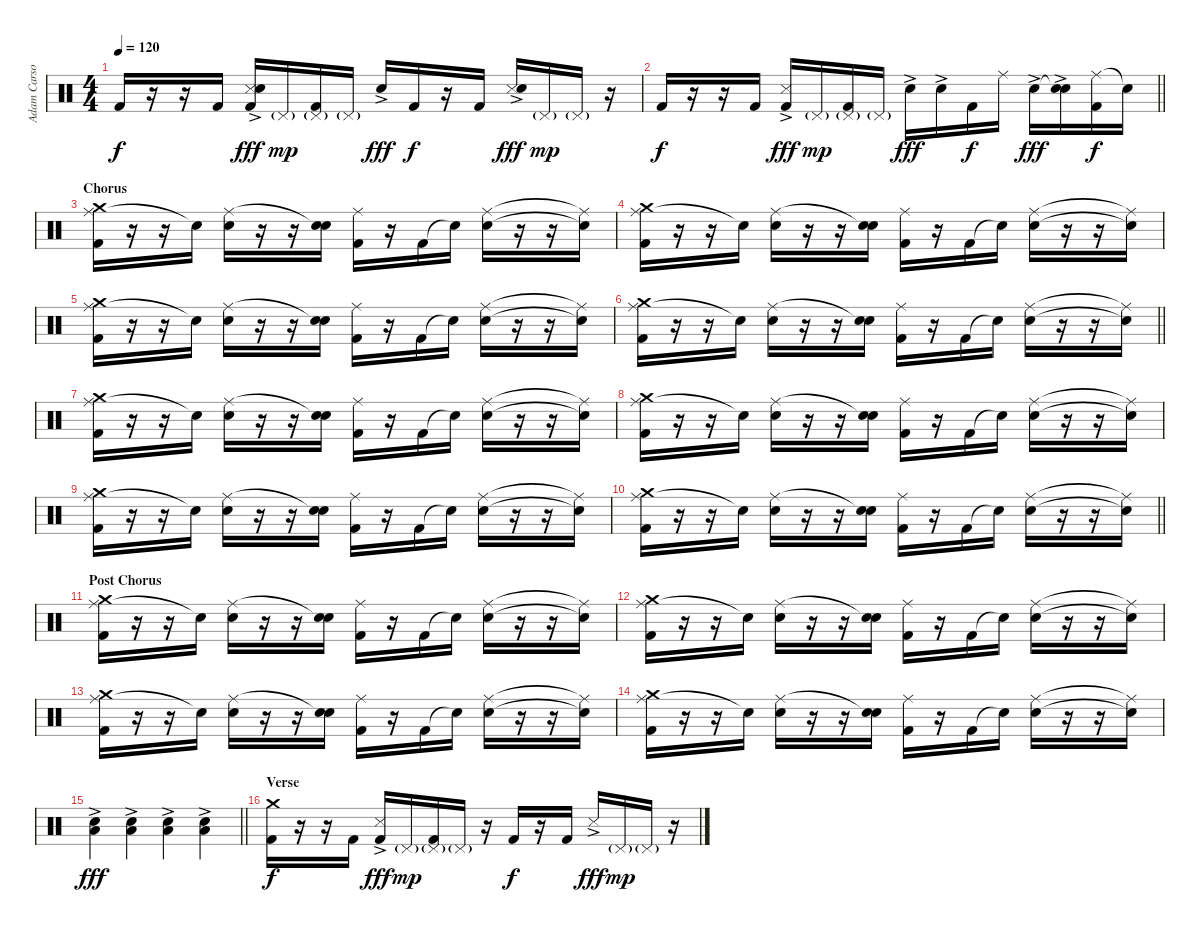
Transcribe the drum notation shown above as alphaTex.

\track ("Adam Carson (Percussion)" "Adam Carso") {instrument percussion}
\staff {score}
\articulation defaults
\ts (4 4)
\tempo 120
\clef neutral
\ks c "Kick (hit) 2".16{dy f}
r.16 r.16 "Kick (hit) 2".16 ("Kick (hit) 2" "Snare (side stick) 3"{ac} "Hand Clap (hit)").16{dy fff} "Pedal Hi-Hat (hit)"{g}.16{dy mp} ("Kick (hit) 2" "Pedal Hi-Hat (hit)"{g}).16 "Pedal Hi-Hat (hit)"{g}.16 "Hand Clap (hit)"{ac}.16{dy fff} "Kick (hit) 2".16{dy f} r.16 "Kick (hit) 2".16 ("Snare (side stick) 3"{ac} "Hand Clap (hit)"{ac}).16{dy fff} "Pedal Hi-Hat (hit)"{g}.16{dy mp} "Pedal Hi-Hat (hit)"{g}.16 r.16 |
\barLineRight lightlight "Kick (hit) 2".16{dy f}
r.16 r.16 "Kick (hit) 2".16 ("Kick (hit) 2" "Snare (side stick) 3"{ac}).16{dy fff} "Pedal Hi-Hat (hit)"{g}.16{dy mp} ("Kick (hit) 2" "Pedal Hi-Hat (hit)"{g}).16 "Pedal Hi-Hat (hit)"{g}.16 "Snare (hit) 2"{ac}.16{dy fff} "Snare (hit) 2"{ac}.16 "Kick (hit) 2".16{dy f} "Ride (middle)".16 "Snare (hit) 2"{ac}.16{dy fff} ("Snare (hit)"{t} "Snare (hit) 2"{ac}).16 ("Ride (middle)" "Kick (hit) 2").16{dy f} "Snare (hit)"{t}.16 |
\section ("" "Chorus")
("Ride (middle)" "Crash medium (hit)" "Kick (hit) 2").16 r.16 r.16 "Snare (hit)"{t}.16 ("Ride (middle)" "Snare (hit) 2").16 r.16 r.16 ("Snare (hit)"{t} "Snare (hit) 2").16 ("Ride (middle)" "Kick (hit) 2").16 r.16 "Kick (hit) 2".16 "Snare (hit)"{t}.16 ("Ride (middle)" "Snare (hit) 2").16 r.16 r.16 ("Ride (middle)"{t} "Snare (hit)"{t}).16 |
("Ride (middle)" "Crash medium (hit)" "Kick (hit) 2").16 r.16 r.16 "Snare (hit)"{t}.16 ("Ride (middle)" "Snare (hit) 2").16 r.16 r.16 ("Snare (hit)"{t} "Snare (hit) 2").16 ("Ride (middle)" "Kick (hit) 2").16 r.16 "Kick (hit) 2".16 "Snare (hit)"{t}.16 ("Ride (middle)" "Snare (hit) 2").16 r.16 r.16 ("Ride (middle)"{t} "Snare (hit)"{t}).16 |
("Ride (middle)" "Crash medium (hit)" "Kick (hit) 2").16 r.16 r.16 "Snare (hit)"{t}.16 ("Ride (middle)" "Snare (hit) 2").16 r.16 r.16 ("Snare (hit)"{t} "Snare (hit) 2").16 ("Ride (middle)" "Kick (hit) 2").16 r.16 "Kick (hit) 2".16 "Snare (hit)"{t}.16 ("Ride (middle)" "Snare (hit) 2").16 r.16 r.16 ("Ride (middle)"{t} "Snare (hit)"{t}).16 |
\barLineRight lightlight
("Ride (middle)" "Crash medium (hit)" "Kick (hit) 2").16 r.16 r.16 "Snare (hit)"{t}.16 ("Ride (middle)" "Snare (hit) 2").16 r.16 r.16 ("Snare (hit)"{t} "Snare (hit) 2").16 ("Ride (middle)" "Kick (hit) 2").16 r.16 "Kick (hit) 2".16 "Snare (hit)"{t}.16 ("Ride (middle)" "Snare (hit) 2").16 r.16 r.16 ("Ride (middle)"{t} "Snare (hit)"{t}).16 |
("Ride (middle)" "Crash medium (hit)" "Kick (hit) 2").16 r.16 r.16 "Snare (hit)"{t}.16 ("Ride (middle)" "Snare (hit) 2").16 r.16 r.16 ("Snare (hit)"{t} "Snare (hit) 2").16 ("Ride (middle)" "Kick (hit) 2").16 r.16 "Kick (hit) 2".16 "Snare (hit)"{t}.16 ("Ride (middle)" "Snare (hit) 2").16 r.16 r.16 ("Ride (middle)"{t} "Snare (hit)"{t}).16 |
("Ride (middle)" "Crash medium (hit)" "Kick (hit) 2").16 r.16 r.16 "Snare (hit)"{t}.16 ("Ride (middle)" "Snare (hit) 2").16 r.16 r.16 ("Snare (hit)"{t} "Snare (hit) 2").16 ("Ride (middle)" "Kick (hit) 2").16 r.16 "Kick (hit) 2".16 "Snare (hit)"{t}.16 ("Ride (middle)" "Snare (hit) 2").16 r.16 r.16 ("Ride (middle)"{t} "Snare (hit)"{t}).16 |
("Ride (middle)" "Crash medium (hit)" "Kick (hit) 2").16 r.16 r.16 "Snare (hit)"{t}.16 ("Ride (middle)" "Snare (hit) 2").16 r.16 r.16 ("Snare (hit)"{t} "Snare (hit) 2").16 ("Ride (middle)" "Kick (hit) 2").16 r.16 "Kick (hit) 2".16 "Snare (hit)"{t}.16 ("Ride (middle)" "Snare (hit) 2").16 r.16 r.16 ("Ride (middle)"{t} "Snare (hit)"{t}).16 |
\barLineRight lightlight
("Ride (middle)" "Crash medium (hit)" "Kick (hit) 2").16 r.16 r.16 "Snare (hit)"{t}.16 ("Ride (middle)" "Snare (hit) 2").16 r.16 r.16 ("Snare (hit)"{t} "Snare (hit) 2").16 ("Ride (middle)" "Kick (hit) 2").16 r.16 "Kick (hit) 2".16 "Snare (hit)"{t}.16 ("Ride (middle)" "Snare (hit) 2").16 r.16 r.16 ("Ride (middle)"{t} "Snare (hit)"{t}).16 |
\section ("" "Post Chorus")
("Ride (middle)" "Crash medium (hit)" "Kick (hit) 2").16 r.16 r.16 "Snare (hit)"{t}.16 ("Ride (middle)" "Snare (hit) 2").16 r.16 r.16 ("Snare (hit)"{t} "Snare (hit) 2").16 ("Ride (middle)" "Kick (hit) 2").16 r.16 "Kick (hit) 2".16 "Snare (hit)"{t}.16 ("Ride (middle)" "Snare (hit) 2").16 r.16 r.16 ("Ride (middle)"{t} "Snare (hit)"{t}).16 |
("Ride (middle)" "Crash medium (hit)" "Kick (hit) 2").16 r.16 r.16 "Snare (hit)"{t}.16 ("Ride (middle)" "Snare (hit) 2").16 r.16 r.16 ("Snare (hit)"{t} "Snare (hit) 2").16 ("Ride (middle)" "Kick (hit) 2").16 r.16 "Kick (hit) 2".16 "Snare (hit)"{t}.16 ("Ride (middle)" "Snare (hit) 2").16 r.16 r.16 ("Ride (middle)"{t} "Snare (hit)"{t}).16 |
("Ride (middle)" "Crash medium (hit)" "Kick (hit) 2").16 r.16 r.16 "Snare (hit)"{t}.16 ("Ride (middle)" "Snare (hit) 2").16 r.16 r.16 ("Snare (hit)"{t} "Snare (hit) 2").16 ("Ride (middle)" "Kick (hit) 2").16 r.16 "Kick (hit) 2".16 "Snare (hit)"{t}.16 ("Ride (middle)" "Snare (hit) 2").16 r.16 r.16 ("Ride (middle)"{t} "Snare (hit)"{t}).16 |
("Ride (middle)" "Crash medium (hit)" "Kick (hit) 2").16 r.16 r.16 "Snare (hit)"{t}.16 ("Ride (middle)" "Snare (hit) 2").16 r.16 r.16 ("Snare (hit)"{t} "Snare (hit) 2").16 ("Ride (middle)" "Kick (hit) 2").16 r.16 "Kick (hit) 2".16 "Snare (hit)"{t}.16 ("Ride (middle)" "Snare (hit) 2").16 r.16 r.16 ("Ride (middle)"{t} "Snare (hit)"{t}).16 |
\barLineRight lightlight
("Low Floor Tom (hit)" "Hand Clap (hit)"{ac}).4{dy fff} ("Low Floor Tom (hit)" "Hand Clap (hit)"{ac}).4 ("Low Floor Tom (hit)" "Hand Clap (hit)"{ac}).4 ("Low Floor Tom (hit)" "Hand Clap (hit)"{ac}).4 |
\section ("" "Verse")
("Kick (hit) 2" "Crash medium (hit)").16{dy f volume 16 balance 8} r.16 r.16 "Kick (hit) 2".16 ("Kick (hit) 2" "Snare (side stick) 3"{ac}).16{dy fff} "Pedal Hi-Hat (hit)"{g}.16{dy mp} ("Kick (hit) 2" "Pedal Hi-Hat (hit)"{g}).16 "Pedal Hi-Hat (hit)"{g}.16 r.16 "Kick (hit) 2".16{dy f} r.16 "Kick (hit) 2".16 "Snare (side stick) 3"{ac}.16{dy fff} "Pedal Hi-Hat (hit)"{g}.16{dy mp} "Pedal Hi-Hat (hit)"{g}.16 r.16
